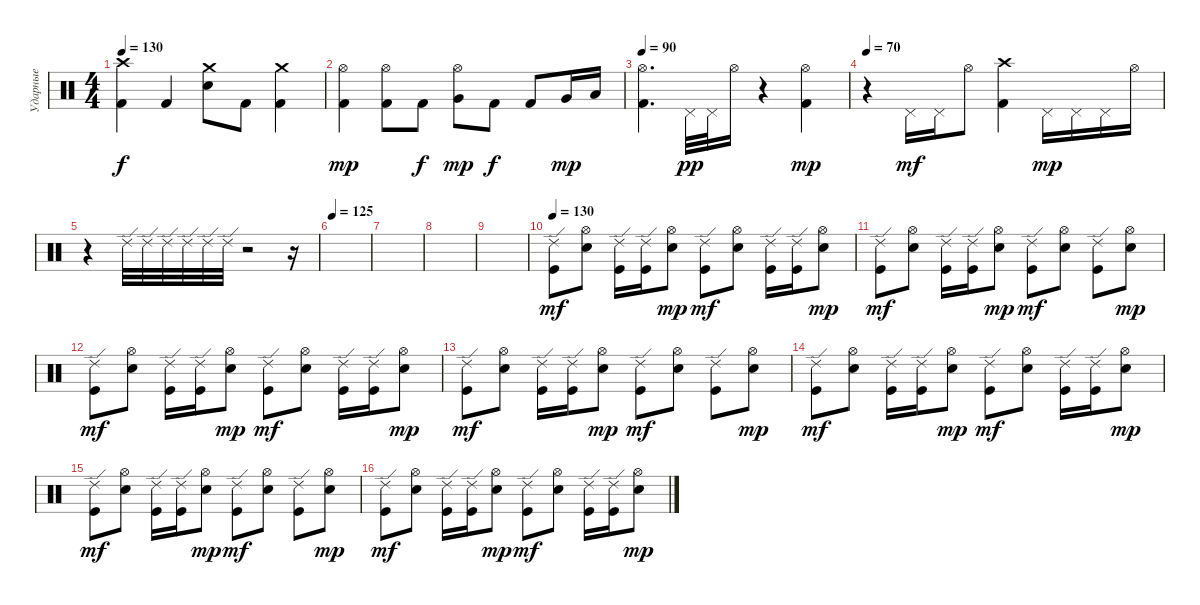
\track ("Ударные" "Ударные") {instrument percussion}
\staff {score}
\articulation defaults
\ts (4 4)
\tempo 130
\clef neutral
\ks c
("Kick (hit) 2" "Crash high (hit)").4{dy f} "Kick (hit) 2".4 ("Electric Snare (hit)" "Crash medium (hit)").8 "Kick (hit) 2".8 ("Kick (hit) 2" "Crash medium (hit)").4 |
("Hi-Hat (open)" "Kick (hit) 2").4{dy mp} ("Hi-Hat (open)" "Kick (hit) 2").8 "Kick (hit) 2".8{dy f} ("Hi-Hat (open)" "Very Low Tom (hit)").8{dy mp} "Kick (hit) 2".8{dy f} "Kick (hit) 2".8 "Very Low Tom (hit)".16{dy mp} "Low Floor Tom (hit)".16 |
\tempo 90
("Hi-Hat (open)" "Kick (hit) 2").4{d} "Pedal Hi-Hat (hit)".32{dy pp} "Pedal Hi-Hat (hit)".32 "Hi-Hat (open)".16 r.4 ("Hi-Hat (open)" "Kick (hit) 2").4{dy mp} |
\tempo 70
r.4 "Pedal Hi-Hat (hit)".16{dy mf} "Pedal Hi-Hat (hit)".16 "Hi-Hat (open)".8 ("Crash high (hit)" "Kick (hit) 2").4 "Pedal Hi-Hat (hit)".16{dy mp} "Pedal Hi-Hat (hit)".16 "Pedal Hi-Hat (hit)".16 "Hi-Hat (open)".16 |
r.4 "Ride (edge) 2".32 "Ride (edge) 2".32 "Ride (edge) 2".32 "Ride (edge) 2".32 "Ride (edge) 2".32 "Ride (edge) 2".32 r.2 r.16 |
\tempo 125
|
|
|
|
\tempo 130
("Kick (hit)" "Ride (edge) 2").8{dy mf volume 10} ("Electric Snare (hit)" "Hi-Hat (open)").8 ("Kick (hit)" "Ride (edge) 2").16 ("Kick (hit)" "Ride (edge) 2").16 ("Electric Snare (hit)" "Hi-Hat (open)").8{dy mp} ("Kick (hit)" "Ride (edge) 2").8{dy mf} ("Electric Snare (hit)" "Hi-Hat (open)").8 ("Kick (hit)" "Ride (edge) 2").16 ("Kick (hit)" "Ride (edge) 2").16 ("Electric Snare (hit)" "Hi-Hat (open)").8{dy mp} |
("Kick (hit)" "Ride (edge) 2").8{dy mf} ("Electric Snare (hit)" "Hi-Hat (open)").8 ("Kick (hit)" "Ride (edge) 2").16 ("Kick (hit)" "Ride (edge) 2").16 ("Electric Snare (hit)" "Hi-Hat (open)").8{dy mp} ("Kick (hit)" "Ride (edge) 2").8{dy mf} ("Electric Snare (hit)" "Hi-Hat (open)").8 ("Kick (hit)" "Ride (edge) 2").8 ("Electric Snare (hit)" "Hi-Hat (open)").8{dy mp} |
("Kick (hit)" "Ride (edge) 2").8{dy mf} ("Electric Snare (hit)" "Hi-Hat (open)").8 ("Kick (hit)" "Ride (edge) 2").16 ("Kick (hit)" "Ride (edge) 2").16 ("Electric Snare (hit)" "Hi-Hat (open)").8{dy mp} ("Kick (hit)" "Ride (edge) 2").8{dy mf} ("Electric Snare (hit)" "Hi-Hat (open)").8 ("Kick (hit)" "Ride (edge) 2").16 ("Kick (hit)" "Ride (edge) 2").16 ("Electric Snare (hit)" "Hi-Hat (open)").8{dy mp} |
("Kick (hit)" "Ride (edge) 2").8{dy mf} ("Electric Snare (hit)" "Hi-Hat (open)").8 ("Kick (hit)" "Ride (edge) 2").16 ("Kick (hit)" "Ride (edge) 2").16 ("Electric Snare (hit)" "Hi-Hat (open)").8{dy mp} ("Kick (hit)" "Ride (edge) 2").8{dy mf} ("Electric Snare (hit)" "Hi-Hat (open)").8 ("Kick (hit)" "Ride (edge) 2").8 ("Electric Snare (hit)" "Hi-Hat (open)").8{dy mp} |
("Kick (hit)" "Ride (edge) 2").8{dy mf} ("Electric Snare (hit)" "Hi-Hat (open)").8 ("Kick (hit)" "Ride (edge) 2").16 ("Kick (hit)" "Ride (edge) 2").16 ("Electric Snare (hit)" "Hi-Hat (open)").8{dy mp} ("Kick (hit)" "Ride (edge) 2").8{dy mf} ("Electric Snare (hit)" "Hi-Hat (open)").8 ("Kick (hit)" "Ride (edge) 2").16 ("Kick (hit)" "Ride (edge) 2").16 ("Electric Snare (hit)" "Hi-Hat (open)").8{dy mp} |
("Kick (hit)" "Ride (edge) 2").8{dy mf} ("Electric Snare (hit)" "Hi-Hat (open)").8 ("Kick (hit)" "Ride (edge) 2").16 ("Kick (hit)" "Ride (edge) 2").16 ("Electric Snare (hit)" "Hi-Hat (open)").8{dy mp} ("Kick (hit)" "Ride (edge) 2").8{dy mf} ("Electric Snare (hit)" "Hi-Hat (open)").8 ("Kick (hit)" "Ride (edge) 2").8 ("Electric Snare (hit)" "Hi-Hat (open)").8{dy mp} |
("Kick (hit)" "Ride (edge) 2").8{dy mf} ("Electric Snare (hit)" "Hi-Hat (open)").8 ("Kick (hit)" "Ride (edge) 2").16 ("Kick (hit)" "Ride (edge) 2").16 ("Electric Snare (hit)" "Hi-Hat (open)").8{dy mp} ("Kick (hit)" "Ride (edge) 2").8{dy mf} ("Electric Snare (hit)" "Hi-Hat (open)").8 ("Kick (hit)" "Ride (edge) 2").16 ("Kick (hit)" "Ride (edge) 2").16 ("Electric Snare (hit)" "Hi-Hat (open)").8{dy mp}
